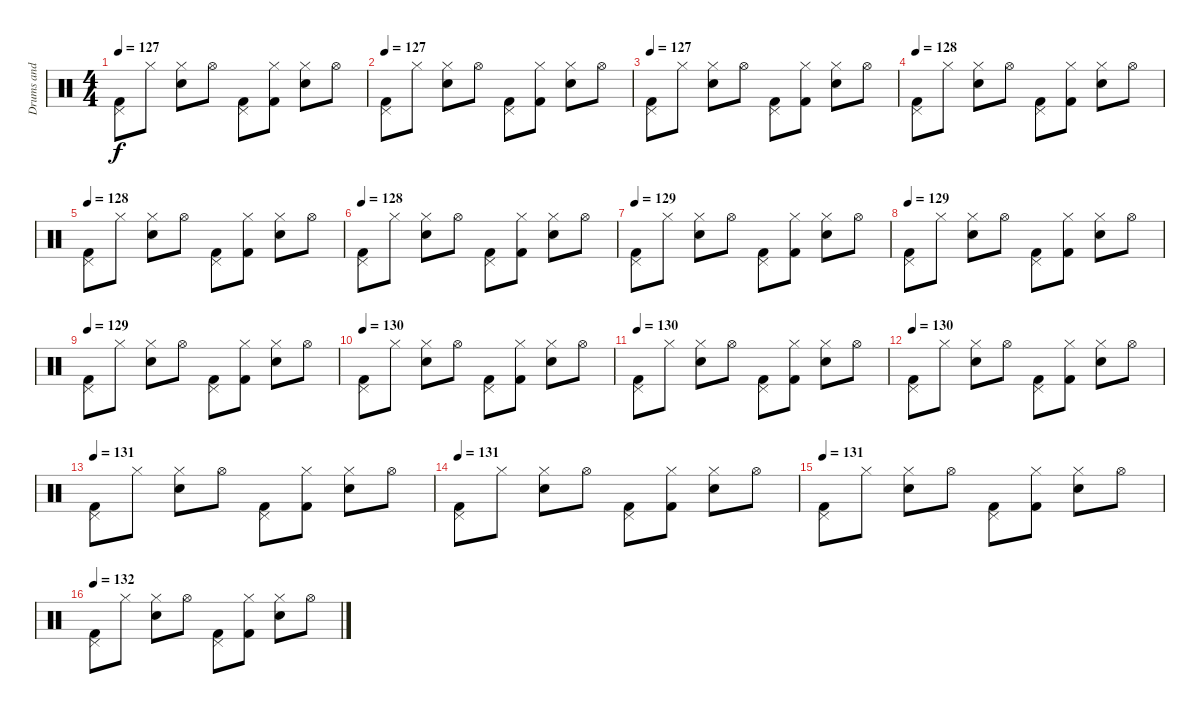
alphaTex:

\track ("Drums and Percussion" "Drums and ") {instrument percussion}
\staff {score}
\articulation defaults
\ts (4 4)
\tempo 127
\clef neutral
\ks c
("Pedal Hi-Hat (hit)" "Kick (hit) 2").8{dy f} "Hi-Hat (closed)".8 ("Hi-Hat (closed)" "Electric Snare (hit)").8 "Hi-Hat (open)".8 ("Pedal Hi-Hat (hit)" "Kick (hit) 2").8 ("Hi-Hat (closed)" "Kick (hit) 2").8 ("Hi-Hat (closed)" "Electric Snare (hit)").8 "Hi-Hat (open)".8 |
\tempo 127
("Pedal Hi-Hat (hit)" "Kick (hit) 2").8 "Hi-Hat (closed)".8 ("Hi-Hat (closed)" "Electric Snare (hit)").8 "Hi-Hat (open)".8 ("Pedal Hi-Hat (hit)" "Kick (hit) 2").8 ("Hi-Hat (closed)" "Kick (hit) 2").8 ("Hi-Hat (closed)" "Electric Snare (hit)").8 "Hi-Hat (open)".8 |
\tempo 127
("Pedal Hi-Hat (hit)" "Kick (hit) 2").8 "Hi-Hat (closed)".8 ("Hi-Hat (closed)" "Electric Snare (hit)").8 "Hi-Hat (open)".8 ("Pedal Hi-Hat (hit)" "Kick (hit) 2").8 ("Hi-Hat (closed)" "Kick (hit) 2").8 ("Hi-Hat (closed)" "Electric Snare (hit)").8 "Hi-Hat (open)".8 |
\tempo 128
("Pedal Hi-Hat (hit)" "Kick (hit) 2").8 "Hi-Hat (closed)".8 ("Hi-Hat (closed)" "Electric Snare (hit)").8 "Hi-Hat (open)".8 ("Pedal Hi-Hat (hit)" "Kick (hit) 2").8 ("Hi-Hat (closed)" "Kick (hit) 2").8 ("Hi-Hat (closed)" "Electric Snare (hit)").8 "Hi-Hat (open)".8 |
\tempo 128
("Pedal Hi-Hat (hit)" "Kick (hit) 2").8 "Hi-Hat (closed)".8 ("Hi-Hat (closed)" "Electric Snare (hit)").8 "Hi-Hat (open)".8 ("Pedal Hi-Hat (hit)" "Kick (hit) 2").8 ("Hi-Hat (closed)" "Kick (hit) 2").8 ("Hi-Hat (closed)" "Electric Snare (hit)").8 "Hi-Hat (open)".8 |
\tempo 128
("Pedal Hi-Hat (hit)" "Kick (hit) 2").8 "Hi-Hat (closed)".8 ("Hi-Hat (closed)" "Electric Snare (hit)").8 "Hi-Hat (open)".8 ("Pedal Hi-Hat (hit)" "Kick (hit) 2").8 ("Hi-Hat (closed)" "Kick (hit) 2").8 ("Hi-Hat (closed)" "Electric Snare (hit)").8 "Hi-Hat (open)".8 |
\tempo 129
("Pedal Hi-Hat (hit)" "Kick (hit) 2").8 "Hi-Hat (closed)".8 ("Hi-Hat (closed)" "Electric Snare (hit)").8 "Hi-Hat (open)".8 ("Pedal Hi-Hat (hit)" "Kick (hit) 2").8 ("Hi-Hat (closed)" "Kick (hit) 2").8 ("Hi-Hat (closed)" "Electric Snare (hit)").8 "Hi-Hat (open)".8 |
\tempo 129
("Pedal Hi-Hat (hit)" "Kick (hit) 2").8 "Hi-Hat (closed)".8 ("Hi-Hat (closed)" "Electric Snare (hit)").8 "Hi-Hat (open)".8 ("Pedal Hi-Hat (hit)" "Kick (hit) 2").8 ("Hi-Hat (closed)" "Kick (hit) 2").8 ("Hi-Hat (closed)" "Electric Snare (hit)").8 "Hi-Hat (open)".8 |
\tempo 129
("Pedal Hi-Hat (hit)" "Kick (hit) 2").8 "Hi-Hat (closed)".8 ("Hi-Hat (closed)" "Electric Snare (hit)").8 "Hi-Hat (open)".8 ("Pedal Hi-Hat (hit)" "Kick (hit) 2").8 ("Hi-Hat (closed)" "Kick (hit) 2").8 ("Hi-Hat (closed)" "Electric Snare (hit)").8 "Hi-Hat (open)".8 |
\tempo 130
("Pedal Hi-Hat (hit)" "Kick (hit) 2").8 "Hi-Hat (closed)".8 ("Hi-Hat (closed)" "Electric Snare (hit)").8 "Hi-Hat (open)".8 ("Pedal Hi-Hat (hit)" "Kick (hit) 2").8 ("Hi-Hat (closed)" "Kick (hit) 2").8 ("Hi-Hat (closed)" "Electric Snare (hit)").8 "Hi-Hat (open)".8 |
\tempo 130
("Pedal Hi-Hat (hit)" "Kick (hit) 2").8 "Hi-Hat (closed)".8 ("Hi-Hat (closed)" "Electric Snare (hit)").8 "Hi-Hat (open)".8 ("Pedal Hi-Hat (hit)" "Kick (hit) 2").8 ("Hi-Hat (closed)" "Kick (hit) 2").8 ("Hi-Hat (closed)" "Electric Snare (hit)").8 "Hi-Hat (open)".8 |
\tempo 130
("Pedal Hi-Hat (hit)" "Kick (hit) 2").8 "Hi-Hat (closed)".8 ("Hi-Hat (closed)" "Electric Snare (hit)").8 "Hi-Hat (open)".8 ("Pedal Hi-Hat (hit)" "Kick (hit) 2").8 ("Hi-Hat (closed)" "Kick (hit) 2").8 ("Hi-Hat (closed)" "Electric Snare (hit)").8 "Hi-Hat (open)".8 |
\tempo 131
("Pedal Hi-Hat (hit)" "Kick (hit) 2").8 "Hi-Hat (closed)".8 ("Hi-Hat (closed)" "Electric Snare (hit)").8 "Hi-Hat (open)".8 ("Pedal Hi-Hat (hit)" "Kick (hit) 2").8 ("Hi-Hat (closed)" "Kick (hit) 2").8 ("Hi-Hat (closed)" "Electric Snare (hit)").8 "Hi-Hat (open)".8 |
\tempo 131
("Pedal Hi-Hat (hit)" "Kick (hit) 2").8 "Hi-Hat (closed)".8 ("Hi-Hat (closed)" "Electric Snare (hit)").8 "Hi-Hat (open)".8 ("Pedal Hi-Hat (hit)" "Kick (hit) 2").8 ("Hi-Hat (closed)" "Kick (hit) 2").8 ("Hi-Hat (closed)" "Electric Snare (hit)").8 "Hi-Hat (open)".8 |
\tempo 131
("Pedal Hi-Hat (hit)" "Kick (hit) 2").8 "Hi-Hat (closed)".8 ("Hi-Hat (closed)" "Electric Snare (hit)").8 "Hi-Hat (open)".8 ("Pedal Hi-Hat (hit)" "Kick (hit) 2").8 ("Hi-Hat (closed)" "Kick (hit) 2").8 ("Hi-Hat (closed)" "Electric Snare (hit)").8 "Hi-Hat (open)".8 |
\tempo 132
("Pedal Hi-Hat (hit)" "Kick (hit) 2").8 "Hi-Hat (closed)".8 ("Hi-Hat (closed)" "Electric Snare (hit)").8 "Hi-Hat (open)".8 ("Pedal Hi-Hat (hit)" "Kick (hit) 2").8 ("Hi-Hat (closed)" "Kick (hit) 2").8 ("Hi-Hat (closed)" "Electric Snare (hit)").8 "Hi-Hat (open)".8
